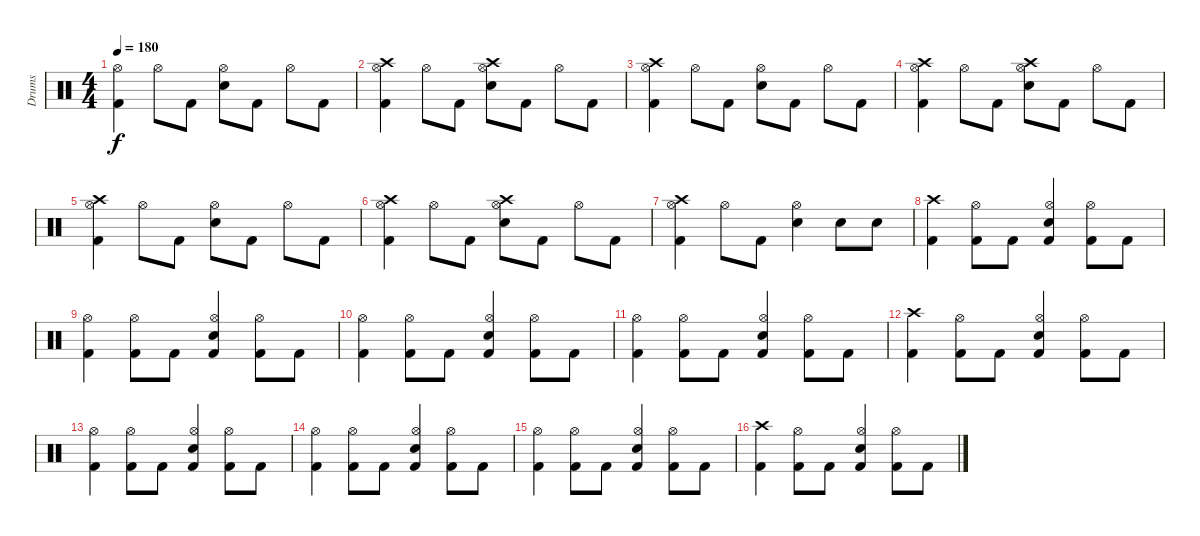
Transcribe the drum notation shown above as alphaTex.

\track ("Drums" "Drums") {instrument percussion}
\staff {score}
\articulation defaults
\ts (4 4)
\tempo 180
\clef neutral
\ks c
("Kick (hit) 2" "Hi-Hat (open)").4{dy f} "Hi-Hat (open)".8 "Kick (hit) 2".8 ("Snare (hit) 2" "Hi-Hat (open)").8 "Kick (hit) 2".8 "Hi-Hat (open)".8 "Kick (hit) 2".8 |
("Kick (hit) 2" "Hi-Hat (open)" "Crash high (hit)").4 "Hi-Hat (open)".8 "Kick (hit) 2".8 ("Snare (hit) 2" "Hi-Hat (open)" "Crash high (hit)").8 "Kick (hit) 2".8 "Hi-Hat (open)".8 "Kick (hit) 2".8 |
("Kick (hit) 2" "Hi-Hat (open)" "Crash high (hit)").4 "Hi-Hat (open)".8 "Kick (hit) 2".8 ("Snare (hit) 2" "Hi-Hat (open)").8 "Kick (hit) 2".8 "Hi-Hat (open)".8 "Kick (hit) 2".8 |
("Kick (hit) 2" "Hi-Hat (open)" "Crash high (hit)").4 "Hi-Hat (open)".8 "Kick (hit) 2".8 ("Snare (hit) 2" "Hi-Hat (open)" "Crash high (hit)").8 "Kick (hit) 2".8 "Hi-Hat (open)".8 "Kick (hit) 2".8 |
("Kick (hit) 2" "Hi-Hat (open)" "Crash high (hit)").4 "Hi-Hat (open)".8 "Kick (hit) 2".8 ("Snare (hit) 2" "Hi-Hat (open)").8 "Kick (hit) 2".8 "Hi-Hat (open)".8 "Kick (hit) 2".8 |
("Kick (hit) 2" "Hi-Hat (open)" "Crash high (hit)").4 "Hi-Hat (open)".8 "Kick (hit) 2".8 ("Snare (hit) 2" "Hi-Hat (open)" "Crash high (hit)").8 "Kick (hit) 2".8 "Hi-Hat (open)".8 "Kick (hit) 2".8 |
("Kick (hit) 2" "Hi-Hat (open)" "Crash high (hit)").4 "Hi-Hat (open)".8 "Kick (hit) 2".8 ("Snare (hit) 2" "Hi-Hat (open)").4 "Snare (hit) 2".8 "Snare (hit) 2".8 |
("Kick (hit) 2" "Crash high (hit)").4 ("Kick (hit) 2" "Hi-Hat (open)").8 "Kick (hit) 2".8 ("Kick (hit) 2" "Snare (hit) 2" "Hi-Hat (open)").4 ("Kick (hit) 2" "Hi-Hat (open)").8 "Kick (hit) 2".8 |
("Kick (hit) 2" "Hi-Hat (open)").4 ("Kick (hit) 2" "Hi-Hat (open)").8 "Kick (hit) 2".8 ("Kick (hit) 2" "Snare (hit) 2" "Hi-Hat (open)").4 ("Kick (hit) 2" "Hi-Hat (open)").8 "Kick (hit) 2".8 |
("Kick (hit) 2" "Hi-Hat (open)").4 ("Kick (hit) 2" "Hi-Hat (open)").8 "Kick (hit) 2".8 ("Kick (hit) 2" "Snare (hit) 2" "Hi-Hat (open)").4 ("Kick (hit) 2" "Hi-Hat (open)").8 "Kick (hit) 2".8 |
("Kick (hit) 2" "Hi-Hat (open)").4 ("Kick (hit) 2" "Hi-Hat (open)").8 "Kick (hit) 2".8 ("Kick (hit) 2" "Snare (hit) 2" "Hi-Hat (open)").4 ("Kick (hit) 2" "Hi-Hat (open)").8 "Kick (hit) 2".8 |
("Kick (hit) 2" "Crash high (hit)").4 ("Kick (hit) 2" "Hi-Hat (open)").8 "Kick (hit) 2".8 ("Kick (hit) 2" "Snare (hit) 2" "Hi-Hat (open)").4 ("Kick (hit) 2" "Hi-Hat (open)").8 "Kick (hit) 2".8 |
("Kick (hit) 2" "Hi-Hat (open)").4 ("Kick (hit) 2" "Hi-Hat (open)").8 "Kick (hit) 2".8 ("Kick (hit) 2" "Snare (hit) 2" "Hi-Hat (open)").4 ("Kick (hit) 2" "Hi-Hat (open)").8 "Kick (hit) 2".8 |
("Kick (hit) 2" "Hi-Hat (open)").4 ("Kick (hit) 2" "Hi-Hat (open)").8 "Kick (hit) 2".8 ("Kick (hit) 2" "Snare (hit) 2" "Hi-Hat (open)").4 ("Kick (hit) 2" "Hi-Hat (open)").8 "Kick (hit) 2".8 |
("Kick (hit) 2" "Hi-Hat (open)").4 ("Kick (hit) 2" "Hi-Hat (open)").8 "Kick (hit) 2".8 ("Kick (hit) 2" "Snare (hit) 2" "Hi-Hat (open)").4 ("Kick (hit) 2" "Hi-Hat (open)").8 "Kick (hit) 2".8 |
("Kick (hit) 2" "Crash high (hit)").4 ("Kick (hit) 2" "Hi-Hat (open)").8 "Kick (hit) 2".8 ("Kick (hit) 2" "Snare (hit) 2" "Hi-Hat (open)").4 ("Kick (hit) 2" "Hi-Hat (open)").8 "Kick (hit) 2".8
